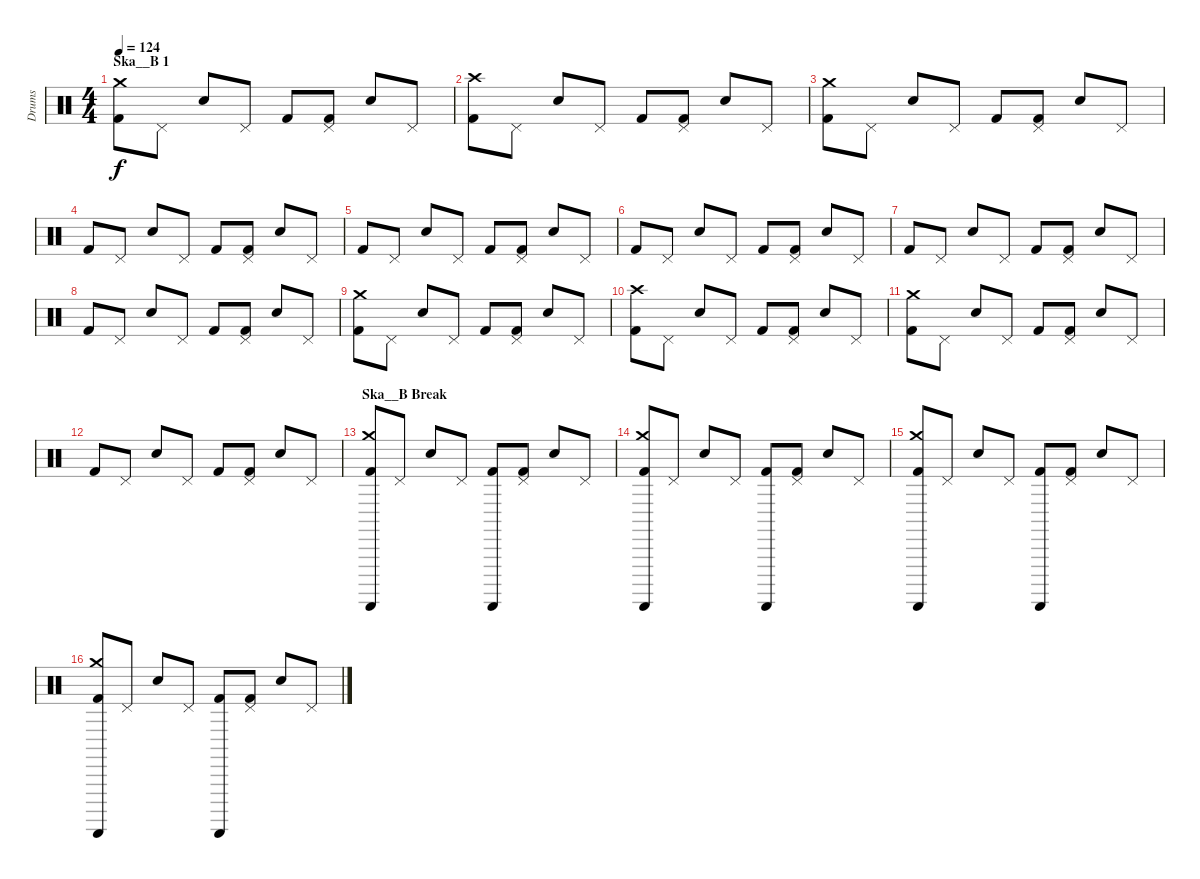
\track ("Drums" "Drums") {instrument percussion}
\staff {score}
\articulation defaults
\ts (4 4)
\section ("" "Ska__B 1")
\tempo 124
\clef neutral
\ks c
("Crash medium (hit)" "Kick (hit) 2").8{dy f} "Pedal Hi-Hat (hit)".8 "Snare (hit) 2".8 "Pedal Hi-Hat (hit)".8 "Kick (hit) 2".8 ("Pedal Hi-Hat (hit)" "Kick (hit) 2").8 "Snare (hit) 2".8 "Pedal Hi-Hat (hit)".8 |
("Crash high (hit)" "Kick (hit) 2").8 "Pedal Hi-Hat (hit)".8 "Snare (hit) 2".8 "Pedal Hi-Hat (hit)".8 "Kick (hit) 2".8 ("Pedal Hi-Hat (hit)" "Kick (hit) 2").8 "Snare (hit) 2".8 "Pedal Hi-Hat (hit)".8 |
("Crash medium (hit)" "Kick (hit) 2").8 "Pedal Hi-Hat (hit)".8 "Snare (hit) 2".8 "Pedal Hi-Hat (hit)".8 "Kick (hit) 2".8 ("Pedal Hi-Hat (hit)" "Kick (hit) 2").8 "Snare (hit) 2".8 "Pedal Hi-Hat (hit)".8 |
"Kick (hit) 2".8 "Pedal Hi-Hat (hit)".8 "Snare (hit) 2".8 "Pedal Hi-Hat (hit)".8 "Kick (hit) 2".8 ("Pedal Hi-Hat (hit)" "Kick (hit) 2").8 "Snare (hit) 2".8 "Pedal Hi-Hat (hit)".8 |
"Kick (hit) 2".8 "Pedal Hi-Hat (hit)".8 "Snare (hit) 2".8 "Pedal Hi-Hat (hit)".8 "Kick (hit) 2".8 ("Pedal Hi-Hat (hit)" "Kick (hit) 2").8 "Snare (hit) 2".8 "Pedal Hi-Hat (hit)".8 |
"Kick (hit) 2".8 "Pedal Hi-Hat (hit)".8 "Snare (hit) 2".8 "Pedal Hi-Hat (hit)".8 "Kick (hit) 2".8 ("Pedal Hi-Hat (hit)" "Kick (hit) 2").8 "Snare (hit) 2".8 "Pedal Hi-Hat (hit)".8 |
"Kick (hit) 2".8 "Pedal Hi-Hat (hit)".8 "Snare (hit) 2".8 "Pedal Hi-Hat (hit)".8 "Kick (hit) 2".8 ("Pedal Hi-Hat (hit)" "Kick (hit) 2").8 "Snare (hit) 2".8 "Pedal Hi-Hat (hit)".8 |
"Kick (hit) 2".8 "Pedal Hi-Hat (hit)".8 "Snare (hit) 2".8 "Pedal Hi-Hat (hit)".8 "Kick (hit) 2".8 ("Pedal Hi-Hat (hit)" "Kick (hit) 2").8 "Snare (hit) 2".8 "Pedal Hi-Hat (hit)".8 |
("Crash medium (hit)" "Kick (hit) 2").8 "Pedal Hi-Hat (hit)".8 "Snare (hit) 2".8 "Pedal Hi-Hat (hit)".8 "Kick (hit) 2".8 ("Pedal Hi-Hat (hit)" "Kick (hit) 2").8 "Snare (hit) 2".8 "Pedal Hi-Hat (hit)".8 |
("Crash high (hit)" "Kick (hit) 2").8 "Pedal Hi-Hat (hit)".8 "Snare (hit) 2".8 "Pedal Hi-Hat (hit)".8 "Kick (hit) 2".8 ("Pedal Hi-Hat (hit)" "Kick (hit) 2").8 "Snare (hit) 2".8 "Pedal Hi-Hat (hit)".8 |
("Crash medium (hit)" "Kick (hit) 2").8 "Pedal Hi-Hat (hit)".8 "Snare (hit) 2".8 "Pedal Hi-Hat (hit)".8 "Kick (hit) 2".8 ("Pedal Hi-Hat (hit)" "Kick (hit) 2").8 "Snare (hit) 2".8 "Pedal Hi-Hat (hit)".8 |
"Kick (hit) 2".8 "Pedal Hi-Hat (hit)".8 "Snare (hit) 2".8 "Pedal Hi-Hat (hit)".8 "Kick (hit) 2".8 ("Pedal Hi-Hat (hit)" "Kick (hit) 2").8 "Snare (hit) 2".8 "Pedal Hi-Hat (hit)".8 |
\section ("" "Ska__B Break")
("Crash medium (hit)" "Guiro (scrap-return)" "Kick (hit) 2").8 "Pedal Hi-Hat (hit)".8 "Snare (hit) 2".8 "Pedal Hi-Hat (hit)".8 ("Guiro (scrap-return)" "Kick (hit) 2").8 ("Pedal Hi-Hat (hit)" "Kick (hit) 2").8 "Snare (hit) 2".8 "Pedal Hi-Hat (hit)".8 |
("Crash medium (hit)" "Guiro (scrap-return)" "Kick (hit) 2").8 "Pedal Hi-Hat (hit)".8 "Snare (hit) 2".8 "Pedal Hi-Hat (hit)".8 ("Guiro (scrap-return)" "Kick (hit) 2").8 ("Pedal Hi-Hat (hit)" "Kick (hit) 2").8 "Snare (hit) 2".8 "Pedal Hi-Hat (hit)".8 |
("Crash medium (hit)" "Guiro (scrap-return)" "Kick (hit) 2").8 "Pedal Hi-Hat (hit)".8 "Snare (hit) 2".8 "Pedal Hi-Hat (hit)".8 ("Guiro (scrap-return)" "Kick (hit) 2").8 ("Pedal Hi-Hat (hit)" "Kick (hit) 2").8 "Snare (hit) 2".8 "Pedal Hi-Hat (hit)".8 |
("Crash medium (hit)" "Guiro (scrap-return)" "Kick (hit) 2").8 "Pedal Hi-Hat (hit)".8 "Snare (hit) 2".8 "Pedal Hi-Hat (hit)".8 ("Guiro (scrap-return)" "Kick (hit) 2").8 ("Pedal Hi-Hat (hit)" "Kick (hit) 2").8 "Snare (hit) 2".8 "Pedal Hi-Hat (hit)".8
